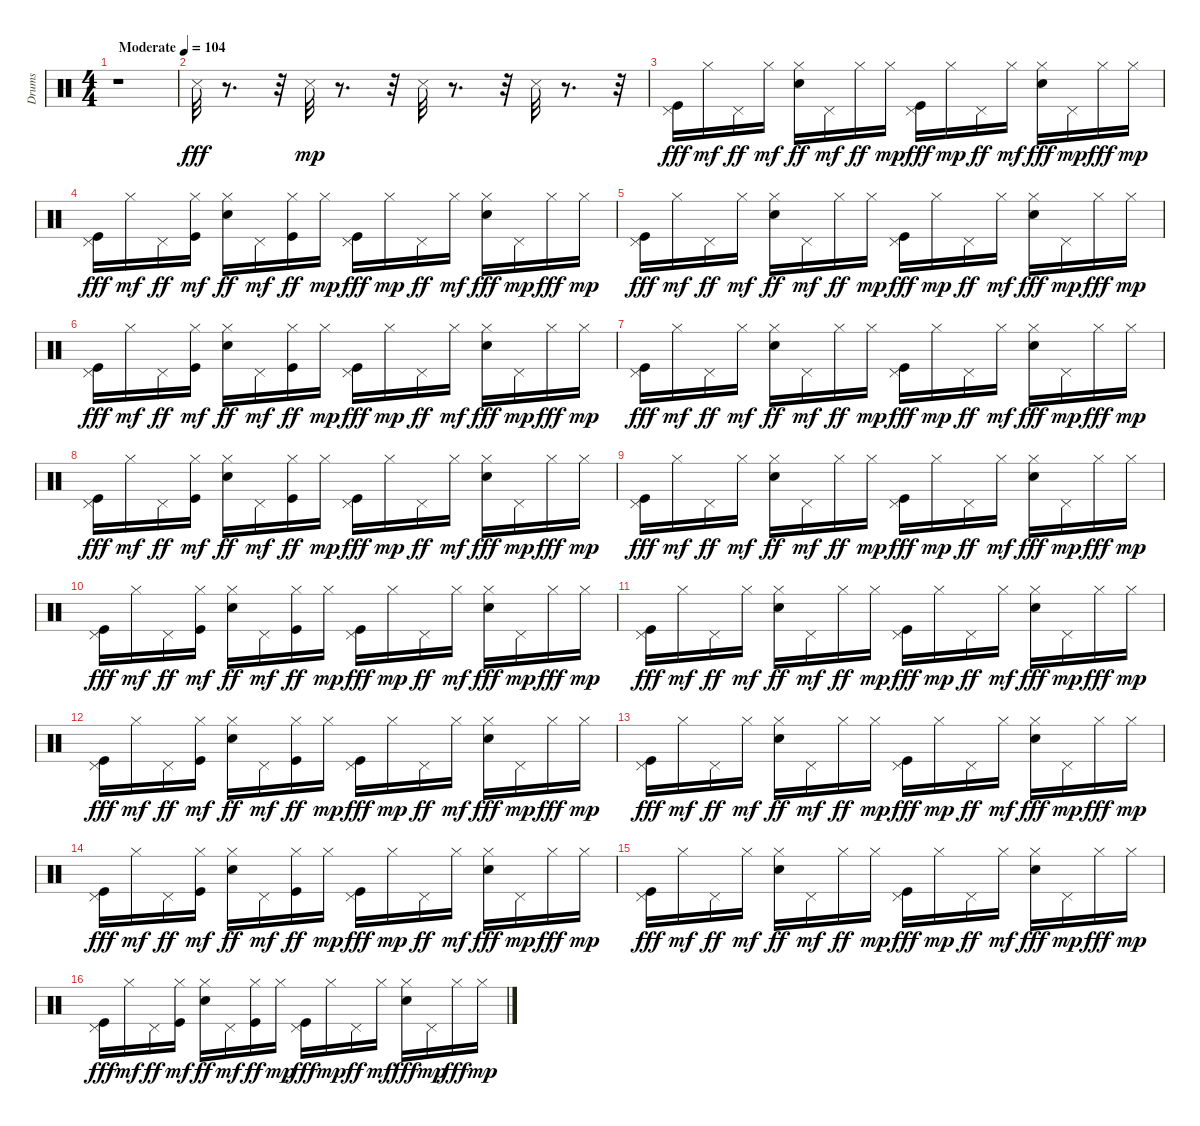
\track ("Drums" "Drums") {instrument percussion}
\staff {score}
\articulation defaults
\ts (4 4)
\tempo (104 "Moderate")
\clef neutral
\ks c
r.1{dy fff} |
"Snare (side stick) 3".32 r.8{d} r.32 "Snare (side stick) 3".32{dy mp} r.8{d} r.32 "Snare (side stick) 3".32 r.8{d} r.32 "Snare (side stick) 3".32 r.8{d} r.32 |
("Kick (hit)" "Pedal Hi-Hat (hit)").16{dy fff} "Hi-Hat (closed)".16{dy mf} "Pedal Hi-Hat (hit)".16{dy ff} "Hi-Hat (closed)".16{dy mf} ("Electric Snare (hit)" "Hi-Hat (closed)").16{dy ff} "Pedal Hi-Hat (hit)".16{dy mf} "Hi-Hat (closed)".16{dy ff} "Hi-Hat (closed)".16{dy mp} ("Kick (hit)" "Pedal Hi-Hat (hit)").16{dy fff} "Hi-Hat (closed)".16{dy mp} "Pedal Hi-Hat (hit)".16{dy ff} "Hi-Hat (closed)".16{dy mf} ("Electric Snare (hit)" "Hi-Hat (closed)").16{dy fff} "Pedal Hi-Hat (hit)".16{dy mp} "Hi-Hat (closed)".16{dy fff} "Hi-Hat (closed)".16{dy mp} |
("Kick (hit)" "Pedal Hi-Hat (hit)").16{dy fff} "Hi-Hat (closed)".16{dy mf} "Pedal Hi-Hat (hit)".16{dy ff} ("Kick (hit)" "Hi-Hat (closed)").16{dy mf} ("Electric Snare (hit)" "Hi-Hat (closed)").16{dy ff} "Pedal Hi-Hat (hit)".16{dy mf} ("Kick (hit)" "Hi-Hat (closed)").16{dy ff} "Hi-Hat (closed)".16{dy mp} ("Kick (hit)" "Pedal Hi-Hat (hit)").16{dy fff} "Hi-Hat (closed)".16{dy mp} "Pedal Hi-Hat (hit)".16{dy ff} "Hi-Hat (closed)".16{dy mf} ("Electric Snare (hit)" "Hi-Hat (closed)").16{dy fff} "Pedal Hi-Hat (hit)".16{dy mp} "Hi-Hat (closed)".16{dy fff} "Hi-Hat (closed)".16{dy mp} |
("Kick (hit)" "Pedal Hi-Hat (hit)").16{dy fff} "Hi-Hat (closed)".16{dy mf} "Pedal Hi-Hat (hit)".16{dy ff} "Hi-Hat (closed)".16{dy mf} ("Electric Snare (hit)" "Hi-Hat (closed)").16{dy ff} "Pedal Hi-Hat (hit)".16{dy mf} "Hi-Hat (closed)".16{dy ff} "Hi-Hat (closed)".16{dy mp} ("Kick (hit)" "Pedal Hi-Hat (hit)").16{dy fff} "Hi-Hat (closed)".16{dy mp} "Pedal Hi-Hat (hit)".16{dy ff} "Hi-Hat (closed)".16{dy mf} ("Electric Snare (hit)" "Hi-Hat (closed)").16{dy fff} "Pedal Hi-Hat (hit)".16{dy mp} "Hi-Hat (closed)".16{dy fff} "Hi-Hat (closed)".16{dy mp} |
("Kick (hit)" "Pedal Hi-Hat (hit)").16{dy fff} "Hi-Hat (closed)".16{dy mf} "Pedal Hi-Hat (hit)".16{dy ff} ("Kick (hit)" "Hi-Hat (closed)").16{dy mf} ("Electric Snare (hit)" "Hi-Hat (closed)").16{dy ff} "Pedal Hi-Hat (hit)".16{dy mf} ("Kick (hit)" "Hi-Hat (closed)").16{dy ff} "Hi-Hat (closed)".16{dy mp} ("Kick (hit)" "Pedal Hi-Hat (hit)").16{dy fff} "Hi-Hat (closed)".16{dy mp} "Pedal Hi-Hat (hit)".16{dy ff} "Hi-Hat (closed)".16{dy mf} ("Electric Snare (hit)" "Hi-Hat (closed)").16{dy fff} "Pedal Hi-Hat (hit)".16{dy mp} "Hi-Hat (closed)".16{dy fff} "Hi-Hat (closed)".16{dy mp} |
("Kick (hit)" "Pedal Hi-Hat (hit)").16{dy fff} "Hi-Hat (closed)".16{dy mf} "Pedal Hi-Hat (hit)".16{dy ff} "Hi-Hat (closed)".16{dy mf} ("Electric Snare (hit)" "Hi-Hat (closed)").16{dy ff} "Pedal Hi-Hat (hit)".16{dy mf} "Hi-Hat (closed)".16{dy ff} "Hi-Hat (closed)".16{dy mp} ("Kick (hit)" "Pedal Hi-Hat (hit)").16{dy fff} "Hi-Hat (closed)".16{dy mp} "Pedal Hi-Hat (hit)".16{dy ff} "Hi-Hat (closed)".16{dy mf} ("Electric Snare (hit)" "Hi-Hat (closed)").16{dy fff} "Pedal Hi-Hat (hit)".16{dy mp} "Hi-Hat (closed)".16{dy fff} "Hi-Hat (closed)".16{dy mp} |
("Kick (hit)" "Pedal Hi-Hat (hit)").16{dy fff} "Hi-Hat (closed)".16{dy mf} "Pedal Hi-Hat (hit)".16{dy ff} ("Kick (hit)" "Hi-Hat (closed)").16{dy mf} ("Electric Snare (hit)" "Hi-Hat (closed)").16{dy ff} "Pedal Hi-Hat (hit)".16{dy mf} ("Kick (hit)" "Hi-Hat (closed)").16{dy ff} "Hi-Hat (closed)".16{dy mp} ("Kick (hit)" "Pedal Hi-Hat (hit)").16{dy fff} "Hi-Hat (closed)".16{dy mp} "Pedal Hi-Hat (hit)".16{dy ff} "Hi-Hat (closed)".16{dy mf} ("Electric Snare (hit)" "Hi-Hat (closed)").16{dy fff} "Pedal Hi-Hat (hit)".16{dy mp} "Hi-Hat (closed)".16{dy fff} "Hi-Hat (closed)".16{dy mp} |
("Kick (hit)" "Pedal Hi-Hat (hit)").16{dy fff} "Hi-Hat (closed)".16{dy mf} "Pedal Hi-Hat (hit)".16{dy ff} "Hi-Hat (closed)".16{dy mf} ("Electric Snare (hit)" "Hi-Hat (closed)").16{dy ff} "Pedal Hi-Hat (hit)".16{dy mf} "Hi-Hat (closed)".16{dy ff} "Hi-Hat (closed)".16{dy mp} ("Kick (hit)" "Pedal Hi-Hat (hit)").16{dy fff} "Hi-Hat (closed)".16{dy mp} "Pedal Hi-Hat (hit)".16{dy ff} "Hi-Hat (closed)".16{dy mf} ("Electric Snare (hit)" "Hi-Hat (closed)").16{dy fff} "Pedal Hi-Hat (hit)".16{dy mp} "Hi-Hat (closed)".16{dy fff} "Hi-Hat (closed)".16{dy mp} |
("Kick (hit)" "Pedal Hi-Hat (hit)").16{dy fff} "Hi-Hat (closed)".16{dy mf} "Pedal Hi-Hat (hit)".16{dy ff} ("Kick (hit)" "Hi-Hat (closed)").16{dy mf} ("Electric Snare (hit)" "Hi-Hat (closed)").16{dy ff} "Pedal Hi-Hat (hit)".16{dy mf} ("Kick (hit)" "Hi-Hat (closed)").16{dy ff} "Hi-Hat (closed)".16{dy mp} ("Kick (hit)" "Pedal Hi-Hat (hit)").16{dy fff} "Hi-Hat (closed)".16{dy mp} "Pedal Hi-Hat (hit)".16{dy ff} "Hi-Hat (closed)".16{dy mf} ("Electric Snare (hit)" "Hi-Hat (closed)").16{dy fff} "Pedal Hi-Hat (hit)".16{dy mp} "Hi-Hat (closed)".16{dy fff} "Hi-Hat (closed)".16{dy mp} |
("Kick (hit)" "Pedal Hi-Hat (hit)").16{dy fff} "Hi-Hat (closed)".16{dy mf} "Pedal Hi-Hat (hit)".16{dy ff} "Hi-Hat (closed)".16{dy mf} ("Electric Snare (hit)" "Hi-Hat (closed)").16{dy ff} "Pedal Hi-Hat (hit)".16{dy mf} "Hi-Hat (closed)".16{dy ff} "Hi-Hat (closed)".16{dy mp} ("Kick (hit)" "Pedal Hi-Hat (hit)").16{dy fff} "Hi-Hat (closed)".16{dy mp} "Pedal Hi-Hat (hit)".16{dy ff} "Hi-Hat (closed)".16{dy mf} ("Electric Snare (hit)" "Hi-Hat (closed)").16{dy fff} "Pedal Hi-Hat (hit)".16{dy mp} "Hi-Hat (closed)".16{dy fff} "Hi-Hat (closed)".16{dy mp} |
("Kick (hit)" "Pedal Hi-Hat (hit)").16{dy fff} "Hi-Hat (closed)".16{dy mf} "Pedal Hi-Hat (hit)".16{dy ff} ("Kick (hit)" "Hi-Hat (closed)").16{dy mf} ("Electric Snare (hit)" "Hi-Hat (closed)").16{dy ff} "Pedal Hi-Hat (hit)".16{dy mf} ("Kick (hit)" "Hi-Hat (closed)").16{dy ff} "Hi-Hat (closed)".16{dy mp} ("Kick (hit)" "Pedal Hi-Hat (hit)").16{dy fff} "Hi-Hat (closed)".16{dy mp} "Pedal Hi-Hat (hit)".16{dy ff} "Hi-Hat (closed)".16{dy mf} ("Electric Snare (hit)" "Hi-Hat (closed)").16{dy fff} "Pedal Hi-Hat (hit)".16{dy mp} "Hi-Hat (closed)".16{dy fff} "Hi-Hat (closed)".16{dy mp} |
("Kick (hit)" "Pedal Hi-Hat (hit)").16{dy fff} "Hi-Hat (closed)".16{dy mf} "Pedal Hi-Hat (hit)".16{dy ff} "Hi-Hat (closed)".16{dy mf} ("Electric Snare (hit)" "Hi-Hat (closed)").16{dy ff} "Pedal Hi-Hat (hit)".16{dy mf} "Hi-Hat (closed)".16{dy ff} "Hi-Hat (closed)".16{dy mp} ("Kick (hit)" "Pedal Hi-Hat (hit)").16{dy fff} "Hi-Hat (closed)".16{dy mp} "Pedal Hi-Hat (hit)".16{dy ff} "Hi-Hat (closed)".16{dy mf} ("Electric Snare (hit)" "Hi-Hat (closed)").16{dy fff} "Pedal Hi-Hat (hit)".16{dy mp} "Hi-Hat (closed)".16{dy fff} "Hi-Hat (closed)".16{dy mp} |
("Kick (hit)" "Pedal Hi-Hat (hit)").16{dy fff} "Hi-Hat (closed)".16{dy mf} "Pedal Hi-Hat (hit)".16{dy ff} ("Kick (hit)" "Hi-Hat (closed)").16{dy mf} ("Electric Snare (hit)" "Hi-Hat (closed)").16{dy ff} "Pedal Hi-Hat (hit)".16{dy mf} ("Kick (hit)" "Hi-Hat (closed)").16{dy ff} "Hi-Hat (closed)".16{dy mp} ("Kick (hit)" "Pedal Hi-Hat (hit)").16{dy fff} "Hi-Hat (closed)".16{dy mp} "Pedal Hi-Hat (hit)".16{dy ff} "Hi-Hat (closed)".16{dy mf} ("Electric Snare (hit)" "Hi-Hat (closed)").16{dy fff} "Pedal Hi-Hat (hit)".16{dy mp} "Hi-Hat (closed)".16{dy fff} "Hi-Hat (closed)".16{dy mp} |
("Kick (hit)" "Pedal Hi-Hat (hit)").16{dy fff} "Hi-Hat (closed)".16{dy mf} "Pedal Hi-Hat (hit)".16{dy ff} "Hi-Hat (closed)".16{dy mf} ("Electric Snare (hit)" "Hi-Hat (closed)").16{dy ff} "Pedal Hi-Hat (hit)".16{dy mf} "Hi-Hat (closed)".16{dy ff} "Hi-Hat (closed)".16{dy mp} ("Kick (hit)" "Pedal Hi-Hat (hit)").16{dy fff} "Hi-Hat (closed)".16{dy mp} "Pedal Hi-Hat (hit)".16{dy ff} "Hi-Hat (closed)".16{dy mf} ("Electric Snare (hit)" "Hi-Hat (closed)").16{dy fff} "Pedal Hi-Hat (hit)".16{dy mp} "Hi-Hat (closed)".16{dy fff} "Hi-Hat (closed)".16{dy mp} |
("Kick (hit)" "Pedal Hi-Hat (hit)").16{dy fff} "Hi-Hat (closed)".16{dy mf} "Pedal Hi-Hat (hit)".16{dy ff} ("Kick (hit)" "Hi-Hat (closed)").16{dy mf} ("Electric Snare (hit)" "Hi-Hat (closed)").16{dy ff} "Pedal Hi-Hat (hit)".16{dy mf} ("Kick (hit)" "Hi-Hat (closed)").16{dy ff} "Hi-Hat (closed)".16{dy mp} ("Kick (hit)" "Pedal Hi-Hat (hit)").16{dy fff} "Hi-Hat (closed)".16{dy mp} "Pedal Hi-Hat (hit)".16{dy ff} "Hi-Hat (closed)".16{dy mf} ("Electric Snare (hit)" "Hi-Hat (closed)").16{dy fff} "Pedal Hi-Hat (hit)".16{dy mp} "Hi-Hat (closed)".16{dy fff} "Hi-Hat (closed)".16{dy mp}
